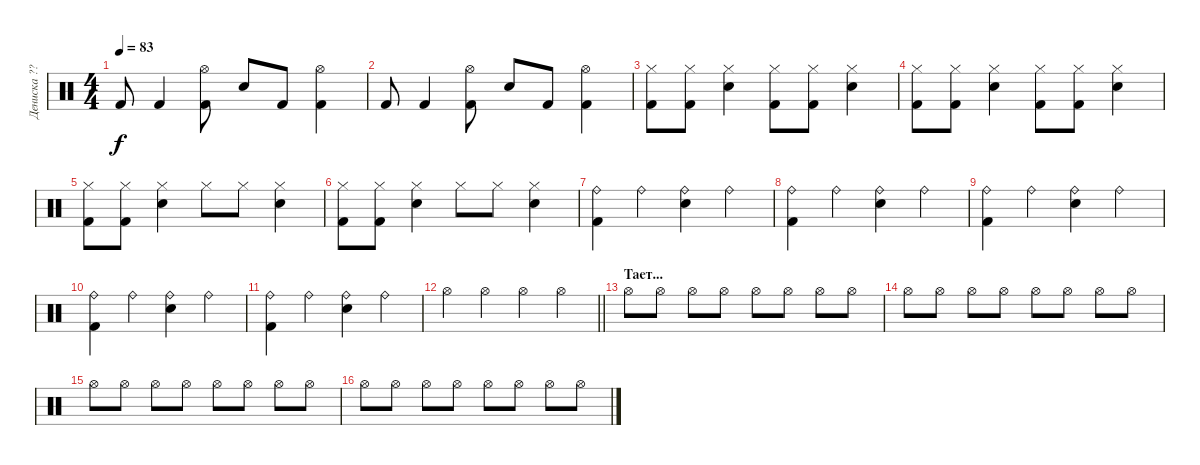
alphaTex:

\track ("Дениска ??" "Дениска ??") {instrument percussion}
\staff {score}
\articulation defaults
\ts (4 4)
\tempo 83
\clef neutral
\ks c "Kick (hit) 2".8{dy f} "Kick (hit) 2".4
("Hi-Hat (open)" "Kick (hit) 2").8 "Electric Snare (hit)".8 "Kick (hit) 2".8 ("Hi-Hat (open)" "Kick (hit) 2").4 |
"Kick (hit) 2".8 "Kick (hit) 2".4 ("Hi-Hat (open)" "Kick (hit) 2").8 "Electric Snare (hit)".8 "Kick (hit) 2".8 ("Hi-Hat (open)" "Kick (hit) 2").4 |
("Hi-Hat (closed)" "Kick (hit) 2").8 ("Hi-Hat (closed)" "Kick (hit) 2").8 ("Hi-Hat (closed)" "Electric Snare (hit)").4 ("Hi-Hat (closed)" "Kick (hit) 2").8 ("Hi-Hat (closed)" "Kick (hit) 2").8 ("Hi-Hat (closed)" "Electric Snare (hit)").4 |
("Hi-Hat (closed)" "Kick (hit) 2").8 ("Hi-Hat (closed)" "Kick (hit) 2").8 ("Hi-Hat (closed)" "Electric Snare (hit)").4 ("Hi-Hat (closed)" "Kick (hit) 2").8 ("Hi-Hat (closed)" "Kick (hit) 2").8 ("Hi-Hat (closed)" "Electric Snare (hit)").4 |
("Hi-Hat (closed)" "Kick (hit) 2").8 ("Hi-Hat (closed)" "Kick (hit) 2").8 ("Hi-Hat (closed)" "Electric Snare (hit)").4 "Hi-Hat (closed)".8 "Hi-Hat (closed)".8 ("Hi-Hat (closed)" "Electric Snare (hit)").4 |
("Hi-Hat (closed)" "Kick (hit) 2").8 ("Hi-Hat (closed)" "Kick (hit) 2").8 ("Hi-Hat (closed)" "Electric Snare (hit)").4 "Hi-Hat (closed)".8 "Hi-Hat (closed)".8 ("Hi-Hat (closed)" "Electric Snare (hit)").4 |
("Ride (bell)" "Kick (hit) 2").4 "Ride (bell)".4 ("Electric Snare (hit)" "Ride (bell)").4 "Ride (bell)".4 |
("Ride (bell)" "Kick (hit) 2").4 "Ride (bell)".4 ("Electric Snare (hit)" "Ride (bell)").4 "Ride (bell)".4 |
("Ride (bell)" "Kick (hit) 2").4 "Ride (bell)".4 ("Electric Snare (hit)" "Ride (bell)").4 "Ride (bell)".4 |
("Ride (bell)" "Kick (hit) 2").4 "Ride (bell)".4 ("Electric Snare (hit)" "Ride (bell)").4 "Ride (bell)".4 |
("Ride (bell)" "Kick (hit) 2").4 "Ride (bell)".4 ("Electric Snare (hit)" "Ride (bell)").4 "Ride (bell)".4 |
\barLineRight lightlight "Hi-Hat (open)".4 "Hi-Hat (open)".4 "Hi-Hat (open)".4 "Hi-Hat (open)".4
|
\section ("" "Тает...")
"Hi-Hat (open)".8 "Hi-Hat (open)".8 "Hi-Hat (open)".8 "Hi-Hat (open)".8 "Hi-Hat (open)".8 "Hi-Hat (open)".8 "Hi-Hat (open)".8 "Hi-Hat (open)".8 |
"Hi-Hat (open)".8 "Hi-Hat (open)".8 "Hi-Hat (open)".8 "Hi-Hat (open)".8 "Hi-Hat (open)".8 "Hi-Hat (open)".8 "Hi-Hat (open)".8 "Hi-Hat (open)".8 |
"Hi-Hat (open)".8 "Hi-Hat (open)".8 "Hi-Hat (open)".8 "Hi-Hat (open)".8 "Hi-Hat (open)".8 "Hi-Hat (open)".8 "Hi-Hat (open)".8 "Hi-Hat (open)".8 |
"Hi-Hat (open)".8 "Hi-Hat (open)".8 "Hi-Hat (open)".8 "Hi-Hat (open)".8 "Hi-Hat (open)".8 "Hi-Hat (open)".8 "Hi-Hat (open)".8 "Hi-Hat (open)".8
